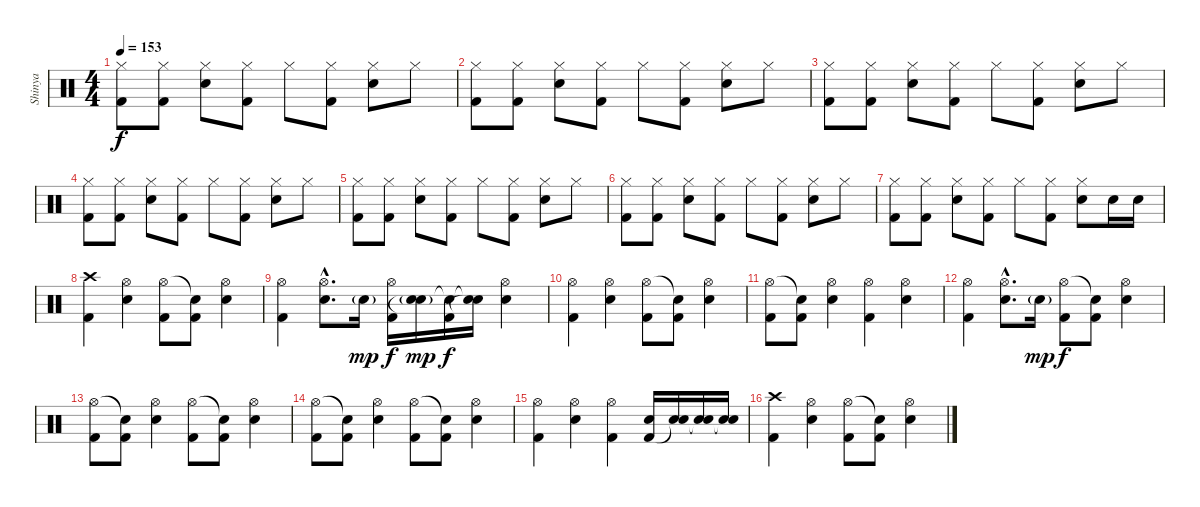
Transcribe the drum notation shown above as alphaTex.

\track ("Shinya" "Shinya") {instrument percussion}
\staff {score}
\articulation defaults
\ts (4 4)
\tempo 153
\clef neutral
\ks c
("Hi-Hat (closed)" "Kick (hit) 2").8{dy f} ("Hi-Hat (closed)" "Kick (hit) 2").8 ("Hi-Hat (closed)" "Electric Snare (hit)").8 ("Hi-Hat (closed)" "Kick (hit) 2").8 "Hi-Hat (closed)".8 ("Hi-Hat (closed)" "Kick (hit) 2").8 ("Hi-Hat (closed)" "Electric Snare (hit)").8 "Hi-Hat (closed)".8 |
("Hi-Hat (closed)" "Kick (hit) 2").8 ("Hi-Hat (closed)" "Kick (hit) 2").8 ("Hi-Hat (closed)" "Electric Snare (hit)").8 ("Hi-Hat (closed)" "Kick (hit) 2").8 "Hi-Hat (closed)".8 ("Hi-Hat (closed)" "Kick (hit) 2").8 ("Hi-Hat (closed)" "Electric Snare (hit)").8 "Hi-Hat (closed)".8 |
("Hi-Hat (closed)" "Kick (hit) 2").8 ("Hi-Hat (closed)" "Kick (hit) 2").8 ("Hi-Hat (closed)" "Electric Snare (hit)").8 ("Hi-Hat (closed)" "Kick (hit) 2").8 "Hi-Hat (closed)".8 ("Hi-Hat (closed)" "Kick (hit) 2").8 ("Hi-Hat (closed)" "Electric Snare (hit)").8 "Hi-Hat (closed)".8 |
("Hi-Hat (closed)" "Kick (hit) 2").8 ("Hi-Hat (closed)" "Kick (hit) 2").8 ("Hi-Hat (closed)" "Electric Snare (hit)").8 ("Hi-Hat (closed)" "Kick (hit) 2").8 "Hi-Hat (closed)".8 ("Hi-Hat (closed)" "Kick (hit) 2").8 ("Hi-Hat (closed)" "Electric Snare (hit)").8 "Hi-Hat (closed)".8 |
("Hi-Hat (closed)" "Kick (hit) 2").8 ("Hi-Hat (closed)" "Kick (hit) 2").8 ("Hi-Hat (closed)" "Electric Snare (hit)").8 ("Hi-Hat (closed)" "Kick (hit) 2").8 "Hi-Hat (closed)".8 ("Hi-Hat (closed)" "Kick (hit) 2").8 ("Hi-Hat (closed)" "Electric Snare (hit)").8 "Hi-Hat (closed)".8 |
("Hi-Hat (closed)" "Kick (hit) 2").8 ("Hi-Hat (closed)" "Kick (hit) 2").8 ("Hi-Hat (closed)" "Electric Snare (hit)").8 ("Hi-Hat (closed)" "Kick (hit) 2").8 "Hi-Hat (closed)".8 ("Hi-Hat (closed)" "Kick (hit) 2").8 ("Hi-Hat (closed)" "Electric Snare (hit)").8 "Hi-Hat (closed)".8 |
("Hi-Hat (closed)" "Kick (hit) 2").8 ("Hi-Hat (closed)" "Kick (hit) 2").8 ("Hi-Hat (closed)" "Electric Snare (hit)").8 ("Hi-Hat (closed)" "Kick (hit) 2").8 "Hi-Hat (closed)".8 ("Hi-Hat (closed)" "Kick (hit) 2").8 ("Hi-Hat (closed)" "Electric Snare (hit)").8 "Electric Snare (hit)".16 "Electric Snare (hit)".16 |
("Crash high (hit)" "Kick (hit) 2").4 ("Hi-Hat (open)" "Electric Snare (hit)").4 ("Hi-Hat (open)" "Kick (hit) 2").8 ("Snare (hit)"{t} "Kick (hit) 2").8 ("Hi-Hat (open)" "Electric Snare (hit)").4 |
("Hi-Hat (open)" "Kick (hit) 2").4 ("Hi-Hat (open)"{hac} "Electric Snare (hit)"{hac}).8{d} "Electric Snare (hit)"{g}.16{dy mp} ("Hi-Hat (open)" "Kick (hit) 2").16{dy f} ("Electric Snare (hit)"{g} "Snare (hit)"{t}).16{dy mp} ("Snare (hit)"{t} "Kick (hit) 2").16{dy f} ("Snare (hit)"{t} "Snare (hit)"{t}).16 ("Hi-Hat (open)" "Electric Snare (hit)").4 |
("Hi-Hat (open)" "Kick (hit) 2").4 ("Hi-Hat (open)" "Electric Snare (hit)").4 ("Hi-Hat (open)" "Kick (hit) 2").8 ("Snare (hit)"{t} "Kick (hit) 2").8 ("Hi-Hat (open)" "Electric Snare (hit)").4 |
("Hi-Hat (open)" "Kick (hit) 2").8 ("Snare (hit)"{t} "Kick (hit) 2").8 ("Hi-Hat (open)" "Electric Snare (hit)").4 ("Hi-Hat (open)" "Kick (hit) 2").4 ("Hi-Hat (open)" "Electric Snare (hit)").4 |
("Hi-Hat (open)" "Kick (hit) 2").4 ("Hi-Hat (open)"{hac} "Electric Snare (hit)"{hac}).8{d} "Electric Snare (hit)"{g}.16{dy mp} ("Hi-Hat (open)" "Kick (hit) 2").8{dy f} ("Snare (hit)"{t} "Kick (hit) 2").8 ("Hi-Hat (open)" "Electric Snare (hit)").4 |
("Hi-Hat (open)" "Kick (hit) 2").8 ("Snare (hit)"{t} "Kick (hit) 2").8 ("Hi-Hat (open)" "Electric Snare (hit)").4 ("Hi-Hat (open)" "Kick (hit) 2").8 ("Snare (hit)"{t} "Kick (hit) 2").8 ("Hi-Hat (open)" "Electric Snare (hit)").4 |
("Hi-Hat (open)" "Kick (hit) 2").8 ("Snare (hit)"{t} "Kick (hit) 2").8 ("Hi-Hat (open)" "Electric Snare (hit)").4 ("Hi-Hat (open)" "Kick (hit) 2").8 ("Snare (hit)"{t} "Kick (hit) 2").8 ("Hi-Hat (open)" "Electric Snare (hit)").4 |
("Hi-Hat (open)" "Kick (hit) 2").4 ("Hi-Hat (open)" "Electric Snare (hit)").4 ("Hi-Hat (open)" "Kick (hit) 2").4 ("Electric Snare (hit)" "Kick (hit) 2").16 ("Electric Snare (hit)" "Snare (hit)"{t}).16 ("Electric Snare (hit)" "Snare (hit)"{t}).16 ("Electric Snare (hit)" "Snare (hit)"{t}).16 |
("Crash high (hit)" "Kick (hit) 2").4 ("Hi-Hat (open)" "Electric Snare (hit)").4 ("Hi-Hat (open)" "Kick (hit) 2").8 ("Snare (hit)"{t} "Kick (hit) 2").8 ("Hi-Hat (open)" "Electric Snare (hit)").4
